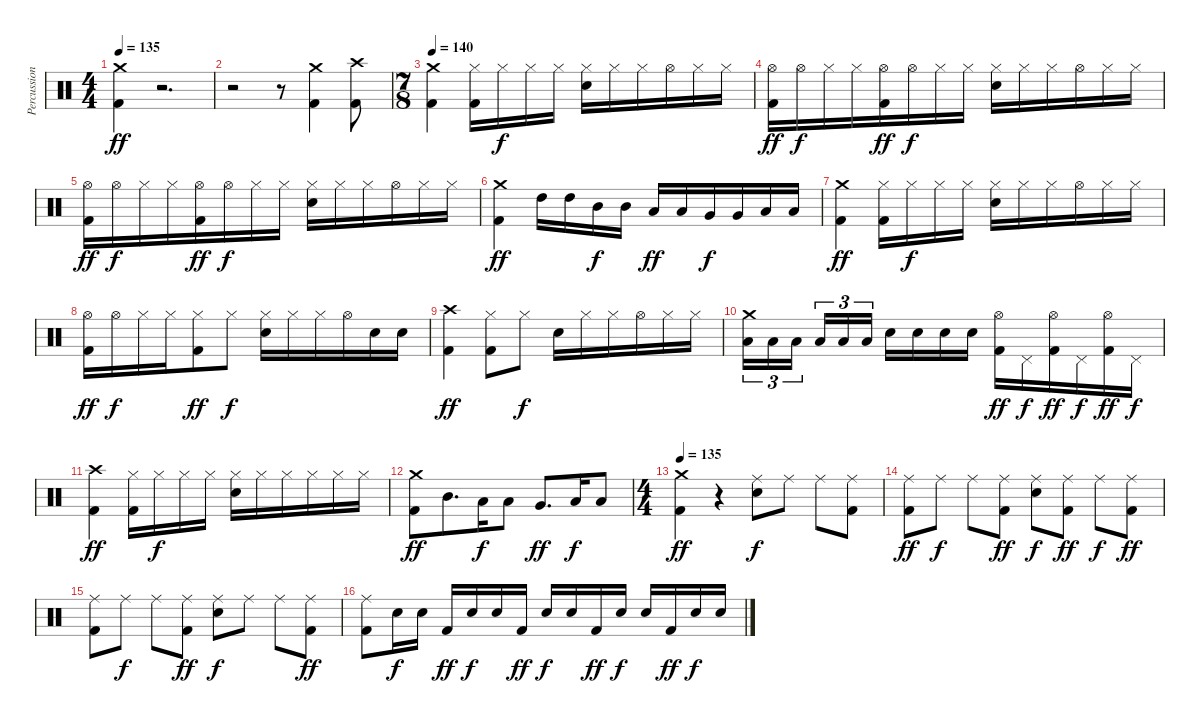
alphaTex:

\track ("Percussion" "Percussion") {instrument percussion}
\staff {score}
\articulation defaults
\ts (4 4)
\tempo 135
\clef neutral
\ks c
("Kick (hit) 2" "Crash medium (hit)").4{dy ff} r.2{d} |
r.2 r.8 ("Kick (hit) 2" "Crash medium (hit)").4 ("Kick (hit) 2" "Crash high (hit)").8 |
\ts (7 8)
\tempo 140
("Kick (hit) 2" "Crash medium (hit)").4 ("Kick (hit) 2" "Hi-Hat (closed)").16 "Hi-Hat (closed)".16{dy f} "Hi-Hat (closed)".16 "Hi-Hat (closed)".16 ("Snare (hit) 2" "Hi-Hat (closed)").16 "Hi-Hat (closed)".16 "Hi-Hat (closed)".16 "Hi-Hat (open)".16 "Hi-Hat (closed)".16 "Hi-Hat (closed)".16 |
("Kick (hit) 2" "Hi-Hat (open)").16{dy ff} "Hi-Hat (open)".16{dy f} "Hi-Hat (closed)".16 "Hi-Hat (closed)".16 ("Kick (hit) 2" "Hi-Hat (open)").16{dy ff} "Hi-Hat (open)".16{dy f} "Hi-Hat (closed)".16 "Hi-Hat (closed)".16 ("Snare (hit) 2" "Hi-Hat (closed)").16 "Hi-Hat (closed)".16 "Hi-Hat (closed)".16 "Hi-Hat (open)".16 "Hi-Hat (closed)".16 "Hi-Hat (closed)".16 |
("Kick (hit) 2" "Hi-Hat (open)").16{dy ff} "Hi-Hat (open)".16{dy f} "Hi-Hat (closed)".16 "Hi-Hat (closed)".16 ("Kick (hit) 2" "Hi-Hat (open)").16{dy ff} "Hi-Hat (open)".16{dy f} "Hi-Hat (closed)".16 "Hi-Hat (closed)".16 ("Snare (hit) 2" "Hi-Hat (closed)").16 "Hi-Hat (closed)".16 "Hi-Hat (closed)".16 "Hi-Hat (open)".16 "Hi-Hat (closed)".16 "Hi-Hat (closed)".16 |
("Kick (hit) 2" "Crash medium (hit)").4{dy ff} "High Tom (hit)".16 "High Tom (hit)".16 "Mid Tom (hit)".16{dy f} "Mid Tom (hit)".16 "Low Tom (hit)".16{dy ff} "Low Tom (hit)".16 "Very Low Tom (hit)".16{dy f} "Very Low Tom (hit)".16 "Low Floor Tom (hit)".16 "Low Floor Tom (hit)".16 |
("Kick (hit) 2" "Crash medium (hit)").4{dy ff} ("Kick (hit) 2" "Hi-Hat (closed)").16 "Hi-Hat (closed)".16{dy f} "Hi-Hat (closed)".16 "Hi-Hat (closed)".16 ("Snare (hit) 2" "Hi-Hat (closed)").16 "Hi-Hat (closed)".16 "Hi-Hat (closed)".16 "Hi-Hat (open)".16 "Hi-Hat (closed)".16 "Hi-Hat (closed)".16 |
("Kick (hit) 2" "Hi-Hat (open)").16{dy ff} "Hi-Hat (open)".16{dy f} "Hi-Hat (closed)".16 "Hi-Hat (closed)".16 ("Kick (hit) 2" "Hi-Hat (closed)").8{dy ff} "Hi-Hat (closed)".8{dy f} ("Snare (hit) 2" "Hi-Hat (closed)").16 "Hi-Hat (closed)".16 "Hi-Hat (closed)".16 "Hi-Hat (open)".16 "Snare (hit) 2".16 "Snare (hit) 2".16 |
("Kick (hit) 2" "Crash high (hit)").4{dy ff} ("Kick (hit) 2" "Hi-Hat (closed)").8 "Hi-Hat (closed)".8{dy f} "Snare (hit) 2".16 "Hi-Hat (closed)".16 "Hi-Hat (closed)".16 "Hi-Hat (open)".16 "Hi-Hat (closed)".16 "Hi-Hat (closed)".16 |
("Low Tom (hit)" "Crash medium (hit)").16{tu (3 2)} "Low Tom (hit)".16{tu (3 2)} "Low Tom (hit)".16{tu (3 2)} "Low Tom (hit)".16{tu (3 2)} "Low Tom (hit)".16{tu (3 2)} "Low Tom (hit)".16{tu (3 2)} "Snare (hit) 2".16 "Snare (hit) 2".16 "Snare (hit) 2".16 "Snare (hit) 2".16 ("Kick (hit) 2" "Hi-Hat (open)").16{dy ff} "Pedal Hi-Hat (hit)".16{dy f} ("Kick (hit) 2" "Hi-Hat (open)").16{dy ff} "Pedal Hi-Hat (hit)".16{dy f} ("Kick (hit) 2" "Hi-Hat (open)").16{dy ff} "Pedal Hi-Hat (hit)".16{dy f} |
("Kick (hit) 2" "Crash high (hit)").4{dy ff} ("Kick (hit) 2" "Hi-Hat (closed)").16 "Hi-Hat (closed)".16{dy f} "Hi-Hat (closed)".16 "Hi-Hat (closed)".16 ("Snare (hit) 2" "Hi-Hat (closed)").16 "Hi-Hat (closed)".16 "Hi-Hat (closed)".16 "Hi-Hat (closed)".16 "Hi-Hat (closed)".16 "Hi-Hat (closed)".16 |
("Kick (hit) 2" "Crash medium (hit)").8{dy ff} "Mid Tom (hit)".8{d} "Low Tom (hit)".16{dy f} "Low Tom (hit)".8 "Very Low Tom (hit)".8{d dy ff} "Low Floor Tom (hit)".16{dy f} "Low Floor Tom (hit)".8 |
\ts (4 4)
\tempo 135
("Kick (hit) 2" "Crash medium (hit)").4{dy ff} r.4 ("Snare (hit) 2" "Ride (middle)").8{dy f} "Ride (middle)".8 "Ride (middle)".8 ("Kick (hit) 2" "Ride (middle)").8 |
("Kick (hit) 2" "Ride (middle)").8{dy ff} "Ride (middle)".8{dy f} "Ride (middle)".8 ("Kick (hit) 2" "Ride (middle)").8{dy ff} ("Snare (hit) 2" "Ride (middle)").8{dy f} ("Kick (hit) 2" "Ride (middle)").8{dy ff} "Ride (middle)".8{dy f} ("Kick (hit) 2" "Ride (middle)").8{dy ff} |
("Kick (hit) 2" "Ride (middle)").8 "Ride (middle)".8{dy f} "Ride (middle)".8 ("Kick (hit) 2" "Ride (middle)").8{dy ff} ("Snare (hit) 2" "Ride (middle)").8{dy f} "Ride (middle)".8 "Ride (middle)".8 ("Kick (hit) 2" "Ride (middle)").8{dy ff} |
("Kick (hit) 2" "Ride (middle)").8 "Snare (hit) 2".16{dy f} "Snare (hit) 2".16 "Kick (hit) 2".16{dy ff} "Snare (hit) 2".16{dy f} "Snare (hit) 2".16 "Kick (hit) 2".16{dy ff} "Snare (hit) 2".16{dy f} "Snare (hit) 2".16 "Kick (hit) 2".16{dy ff} "Snare (hit) 2".16{dy f} "Snare (hit) 2".16 "Kick (hit) 2".16{dy ff} "Snare (hit) 2".16{dy f} "Snare (hit) 2".16
